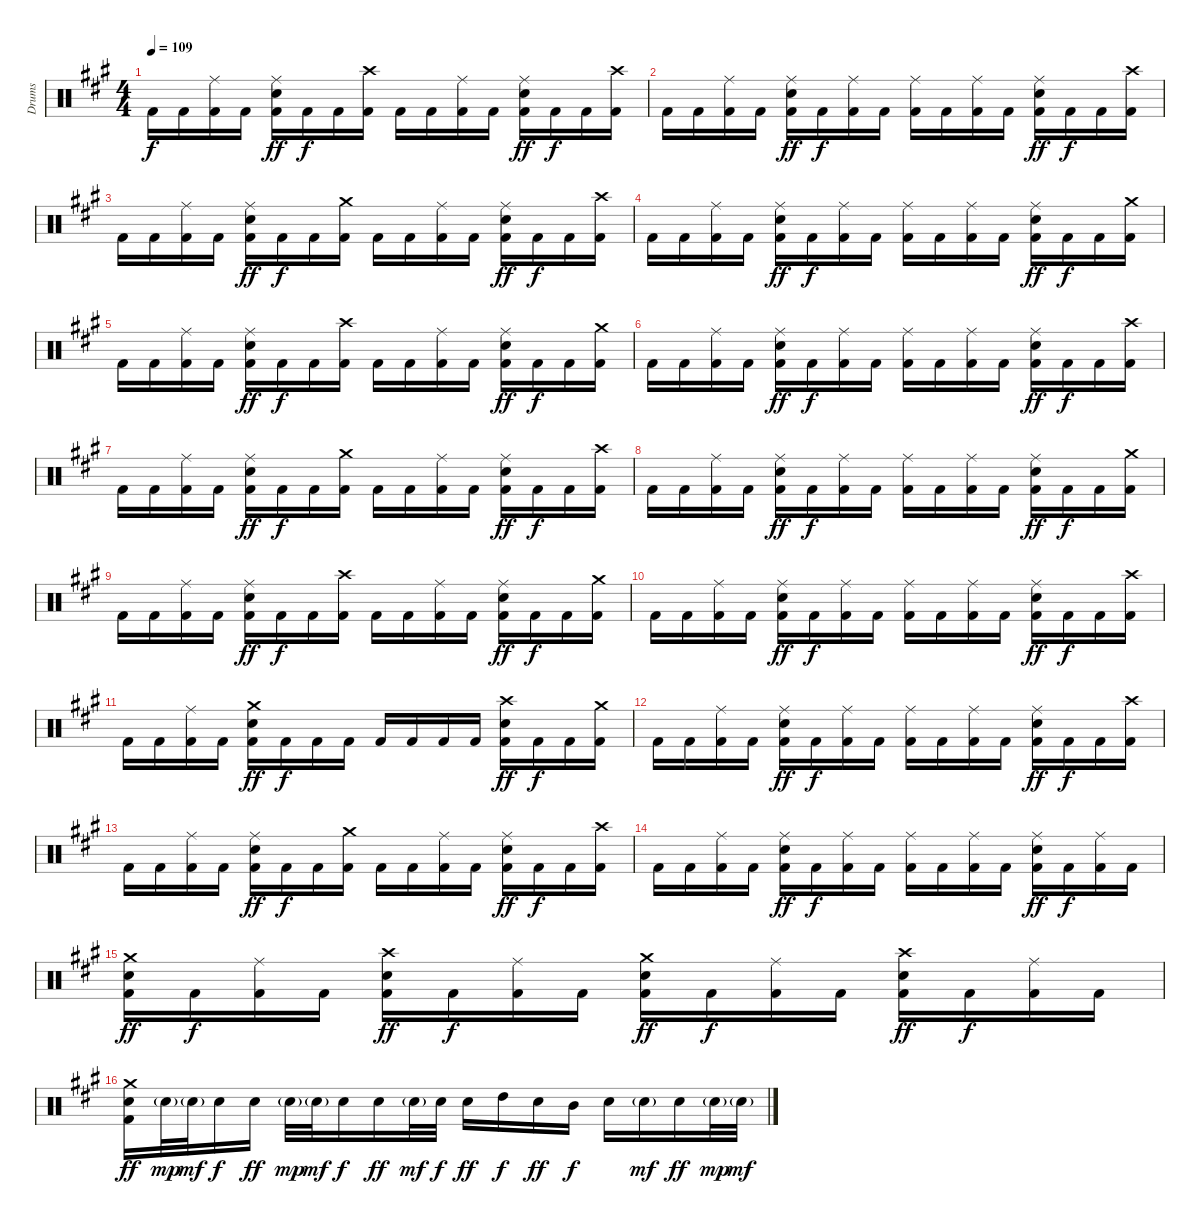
\track ("Drums" "Drums") {instrument percussion}
\staff {score}
\articulation defaults
\ts (4 4)
\tempo 109
\clef neutral
\ks f#minor "Kick (hit) 2".16{dy f} "Kick (hit) 2".16
("Ride (middle)" "Kick (hit) 2").16 "Kick (hit) 2".16 ("Ride (middle)" "Electric Snare (hit)" "Kick (hit) 2").16{dy ff} "Kick (hit) 2".16{dy f} "Kick (hit) 2".16 ("Crash high (hit)" "Kick (hit) 2").16 "Kick (hit) 2".16 "Kick (hit) 2".16 ("Ride (middle)" "Kick (hit) 2").16 "Kick (hit) 2".16 ("Ride (middle)" "Electric Snare (hit)" "Kick (hit) 2").16{dy ff} "Kick (hit) 2".16{dy f} "Kick (hit) 2".16 ("Crash high (hit)" "Kick (hit) 2").16 |
"Kick (hit) 2".16 "Kick (hit) 2".16 ("Ride (middle)" "Kick (hit) 2").16 "Kick (hit) 2".16 ("Ride (middle)" "Electric Snare (hit)" "Kick (hit) 2").16{dy ff} "Kick (hit) 2".16{dy f} ("Ride (middle)" "Kick (hit) 2").16 "Kick (hit) 2".16 ("Ride (middle)" "Kick (hit) 2").16 "Kick (hit) 2".16 ("Ride (middle)" "Kick (hit) 2").16 "Kick (hit) 2".16 ("Ride (middle)" "Electric Snare (hit)" "Kick (hit) 2").16{dy ff} "Kick (hit) 2".16{dy f} "Kick (hit) 2".16 ("Crash high (hit)" "Kick (hit) 2").16 |
"Kick (hit) 2".16 "Kick (hit) 2".16 ("Ride (middle)" "Kick (hit) 2").16 "Kick (hit) 2".16 ("Ride (middle)" "Electric Snare (hit)" "Kick (hit) 2").16{dy ff} "Kick (hit) 2".16{dy f} "Kick (hit) 2".16 ("Crash medium (hit)" "Kick (hit) 2").16 "Kick (hit) 2".16 "Kick (hit) 2".16 ("Ride (middle)" "Kick (hit) 2").16 "Kick (hit) 2".16 ("Ride (middle)" "Electric Snare (hit)" "Kick (hit) 2").16{dy ff} "Kick (hit) 2".16{dy f} "Kick (hit) 2".16 ("Crash high (hit)" "Kick (hit) 2").16 |
"Kick (hit) 2".16 "Kick (hit) 2".16 ("Ride (middle)" "Kick (hit) 2").16 "Kick (hit) 2".16 ("Ride (middle)" "Electric Snare (hit)" "Kick (hit) 2").16{dy ff} "Kick (hit) 2".16{dy f} ("Ride (middle)" "Kick (hit) 2").16 "Kick (hit) 2".16 ("Ride (middle)" "Kick (hit) 2").16 "Kick (hit) 2".16 ("Ride (middle)" "Kick (hit) 2").16 "Kick (hit) 2".16 ("Ride (middle)" "Electric Snare (hit)" "Kick (hit) 2").16{dy ff} "Kick (hit) 2".16{dy f} "Kick (hit) 2".16 ("Crash medium (hit)" "Kick (hit) 2").16 |
"Kick (hit) 2".16 "Kick (hit) 2".16 ("Ride (middle)" "Kick (hit) 2").16 "Kick (hit) 2".16 ("Ride (middle)" "Electric Snare (hit)" "Kick (hit) 2").16{dy ff} "Kick (hit) 2".16{dy f} "Kick (hit) 2".16 ("Crash high (hit)" "Kick (hit) 2").16 "Kick (hit) 2".16 "Kick (hit) 2".16 ("Ride (middle)" "Kick (hit) 2").16 "Kick (hit) 2".16 ("Ride (middle)" "Electric Snare (hit)" "Kick (hit) 2").16{dy ff} "Kick (hit) 2".16{dy f} "Kick (hit) 2".16 ("Crash medium (hit)" "Kick (hit) 2").16 |
"Kick (hit) 2".16 "Kick (hit) 2".16 ("Ride (middle)" "Kick (hit) 2").16 "Kick (hit) 2".16 ("Ride (middle)" "Electric Snare (hit)" "Kick (hit) 2").16{dy ff} "Kick (hit) 2".16{dy f} ("Ride (middle)" "Kick (hit) 2").16 "Kick (hit) 2".16 ("Ride (middle)" "Kick (hit) 2").16 "Kick (hit) 2".16 ("Ride (middle)" "Kick (hit) 2").16 "Kick (hit) 2".16 ("Ride (middle)" "Electric Snare (hit)" "Kick (hit) 2").16{dy ff} "Kick (hit) 2".16{dy f} "Kick (hit) 2".16 ("Crash high (hit)" "Kick (hit) 2").16 |
"Kick (hit) 2".16 "Kick (hit) 2".16 ("Ride (middle)" "Kick (hit) 2").16 "Kick (hit) 2".16 ("Ride (middle)" "Electric Snare (hit)" "Kick (hit) 2").16{dy ff} "Kick (hit) 2".16{dy f} "Kick (hit) 2".16 ("Crash medium (hit)" "Kick (hit) 2").16 "Kick (hit) 2".16 "Kick (hit) 2".16 ("Ride (middle)" "Kick (hit) 2").16 "Kick (hit) 2".16 ("Ride (middle)" "Electric Snare (hit)" "Kick (hit) 2").16{dy ff} "Kick (hit) 2".16{dy f} "Kick (hit) 2".16 ("Crash high (hit)" "Kick (hit) 2").16 |
"Kick (hit) 2".16 "Kick (hit) 2".16 ("Ride (middle)" "Kick (hit) 2").16 "Kick (hit) 2".16 ("Ride (middle)" "Electric Snare (hit)" "Kick (hit) 2").16{dy ff} "Kick (hit) 2".16{dy f} ("Ride (middle)" "Kick (hit) 2").16 "Kick (hit) 2".16 ("Ride (middle)" "Kick (hit) 2").16 "Kick (hit) 2".16 ("Ride (middle)" "Kick (hit) 2").16 "Kick (hit) 2".16 ("Ride (middle)" "Electric Snare (hit)" "Kick (hit) 2").16{dy ff} "Kick (hit) 2".16{dy f} "Kick (hit) 2".16 ("Crash medium (hit)" "Kick (hit) 2").16 |
"Kick (hit) 2".16 "Kick (hit) 2".16 ("Ride (middle)" "Kick (hit) 2").16 "Kick (hit) 2".16 ("Ride (middle)" "Electric Snare (hit)" "Kick (hit) 2").16{dy ff} "Kick (hit) 2".16{dy f} "Kick (hit) 2".16 ("Crash high (hit)" "Kick (hit) 2").16 "Kick (hit) 2".16 "Kick (hit) 2".16 ("Ride (middle)" "Kick (hit) 2").16 "Kick (hit) 2".16 ("Ride (middle)" "Electric Snare (hit)" "Kick (hit) 2").16{dy ff} "Kick (hit) 2".16{dy f} "Kick (hit) 2".16 ("Crash medium (hit)" "Kick (hit) 2").16 |
"Kick (hit) 2".16 "Kick (hit) 2".16 ("Ride (middle)" "Kick (hit) 2").16 "Kick (hit) 2".16 ("Ride (middle)" "Electric Snare (hit)" "Kick (hit) 2").16{dy ff} "Kick (hit) 2".16{dy f} ("Ride (middle)" "Kick (hit) 2").16 "Kick (hit) 2".16 ("Ride (middle)" "Kick (hit) 2").16 "Kick (hit) 2".16 ("Ride (middle)" "Kick (hit) 2").16 "Kick (hit) 2".16 ("Ride (middle)" "Electric Snare (hit)" "Kick (hit) 2").16{dy ff} "Kick (hit) 2".16{dy f} "Kick (hit) 2".16 ("Crash high (hit)" "Kick (hit) 2").16 |
"Kick (hit) 2".16 "Kick (hit) 2".16 ("Ride (middle)" "Kick (hit) 2").16 "Kick (hit) 2".16 ("Crash medium (hit)" "Electric Snare (hit)" "Kick (hit) 2").16{dy ff} "Kick (hit) 2".16{dy f} "Kick (hit) 2".16 "Kick (hit) 2".16 "Kick (hit) 2".16 "Kick (hit) 2".16 "Kick (hit) 2".16 "Kick (hit) 2".16 ("Crash high (hit)" "Electric Snare (hit)" "Kick (hit) 2").16{dy ff} "Kick (hit) 2".16{dy f} "Kick (hit) 2".16 ("Crash medium (hit)" "Kick (hit) 2").16 |
"Kick (hit) 2".16 "Kick (hit) 2".16 ("Ride (middle)" "Kick (hit) 2").16 "Kick (hit) 2".16 ("Ride (middle)" "Electric Snare (hit)" "Kick (hit) 2").16{dy ff} "Kick (hit) 2".16{dy f} ("Ride (middle)" "Kick (hit) 2").16 "Kick (hit) 2".16 ("Ride (middle)" "Kick (hit) 2").16 "Kick (hit) 2".16 ("Ride (middle)" "Kick (hit) 2").16 "Kick (hit) 2".16 ("Ride (middle)" "Electric Snare (hit)" "Kick (hit) 2").16{dy ff} "Kick (hit) 2".16{dy f} "Kick (hit) 2".16 ("Crash high (hit)" "Kick (hit) 2").16 |
"Kick (hit) 2".16 "Kick (hit) 2".16 ("Ride (middle)" "Kick (hit) 2").16 "Kick (hit) 2".16 ("Ride (middle)" "Electric Snare (hit)" "Kick (hit) 2").16{dy ff} "Kick (hit) 2".16{dy f} "Kick (hit) 2".16 ("Crash medium (hit)" "Kick (hit) 2").16 "Kick (hit) 2".16 "Kick (hit) 2".16 ("Ride (middle)" "Kick (hit) 2").16 "Kick (hit) 2".16 ("Ride (middle)" "Electric Snare (hit)" "Kick (hit) 2").16{dy ff} "Kick (hit) 2".16{dy f} "Kick (hit) 2".16 ("Crash high (hit)" "Kick (hit) 2").16 |
"Kick (hit) 2".16 "Kick (hit) 2".16 ("Ride (middle)" "Kick (hit) 2").16 "Kick (hit) 2".16 ("Ride (middle)" "Electric Snare (hit)" "Kick (hit) 2").16{dy ff} "Kick (hit) 2".16{dy f} ("Ride (middle)" "Kick (hit) 2").16 "Kick (hit) 2".16 ("Ride (middle)" "Kick (hit) 2").16 "Kick (hit) 2".16 ("Ride (middle)" "Kick (hit) 2").16 "Kick (hit) 2".16 ("Ride (middle)" "Electric Snare (hit)" "Kick (hit) 2").16{dy ff} "Kick (hit) 2".16{dy f} ("Ride (middle)" "Kick (hit) 2").16 "Kick (hit) 2".16 |
("Crash medium (hit)" "Electric Snare (hit)" "Kick (hit) 2").16{dy ff} "Kick (hit) 2".16{dy f} ("Ride (middle)" "Kick (hit) 2").16 "Kick (hit) 2".16 ("Crash high (hit)" "Electric Snare (hit)" "Kick (hit) 2").16{dy ff} "Kick (hit) 2".16{dy f} ("Ride (middle)" "Kick (hit) 2").16 "Kick (hit) 2".16 ("Crash medium (hit)" "Electric Snare (hit)" "Kick (hit) 2").16{dy ff} "Kick (hit) 2".16{dy f} ("Ride (middle)" "Kick (hit) 2").16 "Kick (hit) 2".16 ("Crash high (hit)" "Electric Snare (hit)" "Kick (hit) 2").16{dy ff} "Kick (hit) 2".16{dy f} ("Ride (middle)" "Kick (hit) 2").16 "Kick (hit) 2".16 |
("Crash medium (hit)" "Electric Snare (hit)" "Kick (hit) 2").16{dy ff} "Electric Snare (hit)"{g}.32{dy mp} "Electric Snare (hit)"{g}.32{dy mf} "Electric Snare (hit)".16{dy f} "Electric Snare (hit)".16{dy ff} "Electric Snare (hit)"{g}.32{dy mp} "Electric Snare (hit)"{g}.32{dy mf} "Electric Snare (hit)".16{dy f} "Electric Snare (hit)".16{dy ff} "Electric Snare (hit)"{g}.32{dy mf} "Electric Snare (hit)".32{dy f} "Electric Snare (hit)".16{dy ff} "High Tom (hit)".16{dy f} "Electric Snare (hit)".16{dy ff} "Mid Tom (hit)".16{dy f} "Electric Snare (hit)".16 "Electric Snare (hit)"{g}.16{dy mf} "Electric Snare (hit)".16{dy ff} "Electric Snare (hit)"{g}.32{dy mp} "Electric Snare (hit)"{g}.32{dy mf}
